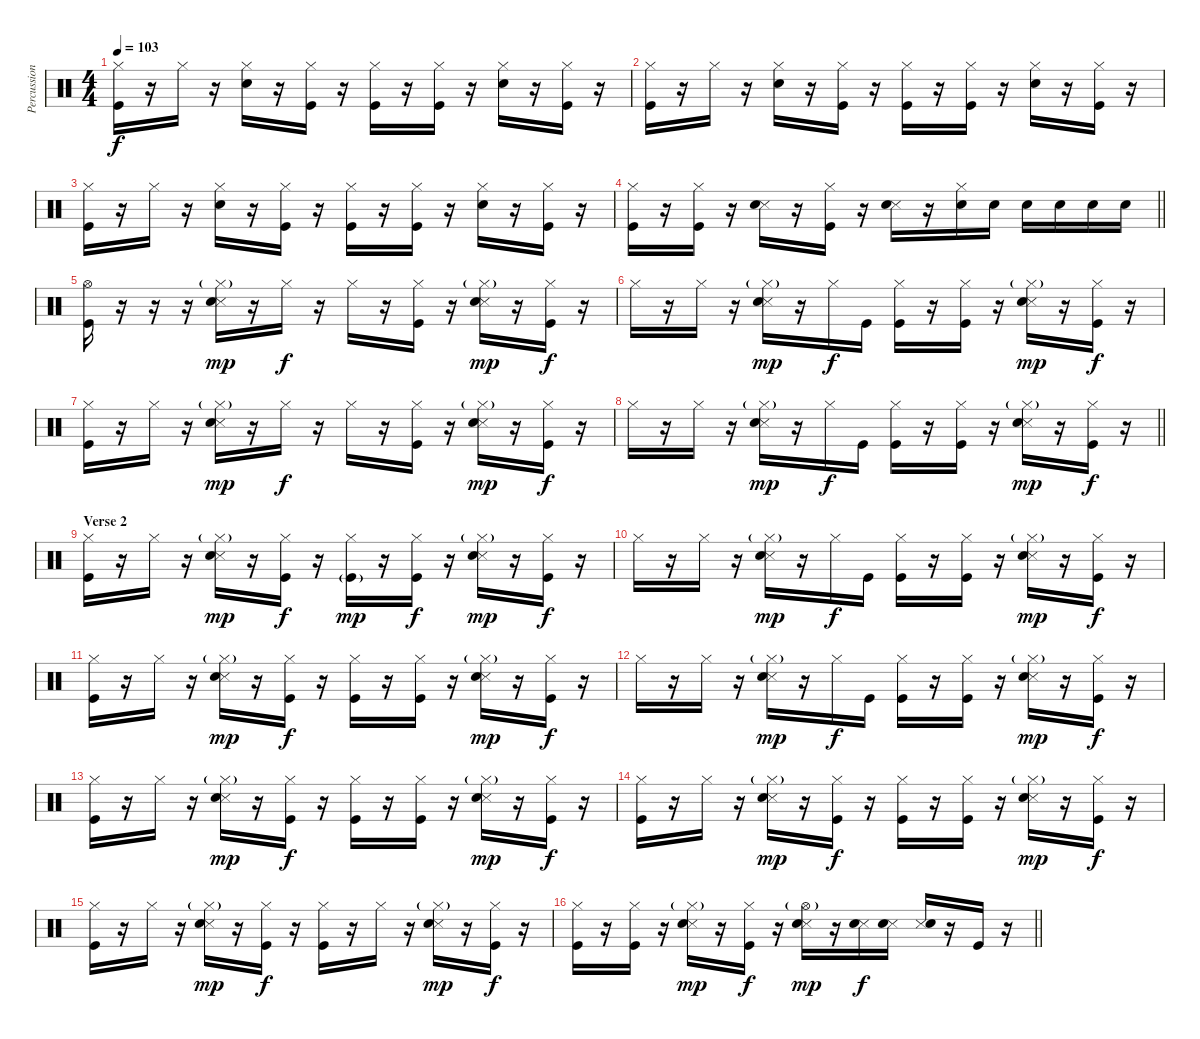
\track ("Percussion" "Percussion") {instrument percussion}
\staff {score}
\articulation defaults
\ts (4 4)
\tempo 103
\clef neutral
\ks c
("Hi-Hat (closed)" "Kick (hit)").16{dy f} r.16 "Hi-Hat (closed)".16 r.16 ("Hi-Hat (closed)" "Snare (hit) 2").16 r.16 ("Hi-Hat (closed)" "Kick (hit)").16 r.16 ("Hi-Hat (closed)" "Kick (hit)").16 r.16 ("Hi-Hat (closed)" "Kick (hit)").16 r.16 ("Hi-Hat (closed)" "Snare (hit) 2").16 r.16 ("Hi-Hat (closed)" "Kick (hit)").16 r.16 |
("Hi-Hat (closed)" "Kick (hit)").16 r.16 "Hi-Hat (closed)".16 r.16 ("Hi-Hat (closed)" "Snare (hit) 2").16 r.16 ("Hi-Hat (closed)" "Kick (hit)").16 r.16 ("Hi-Hat (closed)" "Kick (hit)").16 r.16 ("Hi-Hat (closed)" "Kick (hit)").16 r.16 ("Hi-Hat (closed)" "Snare (hit) 2").16 r.16 ("Hi-Hat (closed)" "Kick (hit)").16 r.16 |
("Hi-Hat (closed)" "Kick (hit)").16 r.16 "Hi-Hat (closed)".16 r.16 ("Hi-Hat (closed)" "Snare (hit) 2").16 r.16 ("Hi-Hat (closed)" "Kick (hit)").16 r.16 ("Hi-Hat (closed)" "Kick (hit)").16 r.16 ("Hi-Hat (closed)" "Kick (hit)").16 r.16 ("Hi-Hat (closed)" "Snare (hit) 2").16 r.16 ("Hi-Hat (closed)" "Kick (hit)").16 r.16 |
\barLineRight lightlight
("Hi-Hat (closed)" "Kick (hit)").16 r.16 ("Hi-Hat (closed)" "Kick (hit)").16 r.16 ("Snare (side stick) 3" "Snare (hit) 2").16 r.16 ("Hi-Hat (closed)" "Kick (hit)").16 r.16 ("Snare (side stick) 3" "Snare (hit) 2").16 r.16 ("Hi-Hat (closed)" "Snare (hit) 2").16 "Snare (hit) 2".16 "Snare (hit) 2".16 "Snare (hit) 2".16 "Snare (hit) 2".16 "Snare (hit) 2".16 |
("Hi-Hat (open)" "Kick (hit)").16 r.16 r.16 r.16 ("Hi-Hat (closed)"{g} "Snare (side stick) 3" "Snare (hit) 2").16{dy mp} r.16 "Hi-Hat (closed)".16{dy f} r.16 "Hi-Hat (closed)".16 r.16 ("Hi-Hat (closed)" "Kick (hit)").16 r.16 ("Hi-Hat (closed)"{g} "Snare (side stick) 3" "Snare (hit) 2").16{dy mp} r.16 ("Hi-Hat (closed)" "Kick (hit)").16{dy f} r.16 |
"Hi-Hat (closed)".16 r.16 "Hi-Hat (closed)".16 r.16 ("Hi-Hat (closed)"{g} "Snare (side stick) 3" "Snare (hit) 2").16{dy mp} r.16 "Hi-Hat (closed)".16{dy f} "Kick (hit)".16 ("Hi-Hat (closed)" "Kick (hit)").16 r.16 ("Hi-Hat (closed)" "Kick (hit)").16 r.16 ("Hi-Hat (closed)"{g} "Snare (side stick) 3" "Snare (hit) 2").16{dy mp} r.16 ("Hi-Hat (closed)" "Kick (hit)").16{dy f} r.16 |
("Hi-Hat (closed)" "Kick (hit)").16 r.16 "Hi-Hat (closed)".16 r.16 ("Hi-Hat (closed)"{g} "Snare (side stick) 3" "Snare (hit) 2").16{dy mp} r.16 "Hi-Hat (closed)".16{dy f} r.16 "Hi-Hat (closed)".16 r.16 ("Hi-Hat (closed)" "Kick (hit)").16 r.16 ("Hi-Hat (closed)"{g} "Snare (side stick) 3" "Snare (hit) 2").16{dy mp} r.16 ("Hi-Hat (closed)" "Kick (hit)").16{dy f} r.16 |
\barLineRight lightlight "Hi-Hat (closed)".16
r.16 "Hi-Hat (closed)".16 r.16 ("Hi-Hat (closed)"{g} "Snare (side stick) 3" "Snare (hit) 2").16{dy mp} r.16 "Hi-Hat (closed)".16{dy f} "Kick (hit)".16 ("Hi-Hat (closed)" "Kick (hit)").16 r.16 ("Hi-Hat (closed)" "Kick (hit)").16 r.16 ("Hi-Hat (closed)"{g} "Snare (side stick) 3" "Snare (hit) 2").16{dy mp} r.16 ("Hi-Hat (closed)" "Kick (hit)").16{dy f} r.16 |
\section ("" "Verse 2")
("Hi-Hat (closed)" "Kick (hit)").16 r.16 "Hi-Hat (closed)".16 r.16 ("Hi-Hat (closed)"{g} "Snare (side stick) 3" "Snare (hit) 2").16{dy mp} r.16 ("Hi-Hat (closed)" "Kick (hit)").16{dy f} r.16 ("Hi-Hat (closed)" "Kick (hit)"{g}).16{dy mp} r.16 ("Hi-Hat (closed)" "Kick (hit)").16{dy f} r.16 ("Hi-Hat (closed)"{g} "Snare (side stick) 3" "Snare (hit) 2").16{dy mp} r.16 ("Hi-Hat (closed)" "Kick (hit)").16{dy f} r.16 |
"Hi-Hat (closed)".16 r.16 "Hi-Hat (closed)".16 r.16 ("Hi-Hat (closed)"{g} "Snare (side stick) 3" "Snare (hit) 2").16{dy mp} r.16 "Hi-Hat (closed)".16{dy f} "Kick (hit)".16 ("Hi-Hat (closed)" "Kick (hit)").16 r.16 ("Hi-Hat (closed)" "Kick (hit)").16 r.16 ("Hi-Hat (closed)"{g} "Snare (side stick) 3" "Snare (hit) 2").16{dy mp} r.16 ("Hi-Hat (closed)" "Kick (hit)").16{dy f} r.16 |
("Hi-Hat (closed)" "Kick (hit)").16 r.16 "Hi-Hat (closed)".16 r.16 ("Hi-Hat (closed)"{g} "Snare (side stick) 3" "Snare (hit) 2").16{dy mp} r.16 ("Hi-Hat (closed)" "Kick (hit)").16{dy f} r.16 ("Hi-Hat (closed)" "Kick (hit)").16 r.16 ("Hi-Hat (closed)" "Kick (hit)").16 r.16 ("Hi-Hat (closed)"{g} "Snare (side stick) 3" "Snare (hit) 2").16{dy mp} r.16 ("Hi-Hat (closed)" "Kick (hit)").16{dy f} r.16 |
"Hi-Hat (closed)".16 r.16 "Hi-Hat (closed)".16 r.16 ("Hi-Hat (closed)"{g} "Snare (side stick) 3" "Snare (hit) 2").16{dy mp} r.16 "Hi-Hat (closed)".16{dy f} "Kick (hit)".16 ("Hi-Hat (closed)" "Kick (hit)").16 r.16 ("Hi-Hat (closed)" "Kick (hit)").16 r.16 ("Hi-Hat (closed)"{g} "Snare (side stick) 3" "Snare (hit) 2").16{dy mp} r.16 ("Hi-Hat (closed)" "Kick (hit)").16{dy f} r.16 |
("Hi-Hat (closed)" "Kick (hit)").16 r.16 "Hi-Hat (closed)".16 r.16 ("Hi-Hat (closed)"{g} "Snare (side stick) 3" "Snare (hit) 2").16{dy mp} r.16 ("Hi-Hat (closed)" "Kick (hit)").16{dy f} r.16 ("Hi-Hat (closed)" "Kick (hit)").16 r.16 ("Hi-Hat (closed)" "Kick (hit)").16 r.16 ("Hi-Hat (closed)"{g} "Snare (side stick) 3" "Snare (hit) 2").16{dy mp} r.16 ("Hi-Hat (closed)" "Kick (hit)").16{dy f} r.16 |
("Hi-Hat (closed)" "Kick (hit)").16 r.16 "Hi-Hat (closed)".16 r.16 ("Hi-Hat (closed)"{g} "Snare (side stick) 3" "Snare (hit) 2").16{dy mp} r.16 ("Hi-Hat (closed)" "Kick (hit)").16{dy f} r.16 ("Hi-Hat (closed)" "Kick (hit)").16 r.16 ("Hi-Hat (closed)" "Kick (hit)").16 r.16 ("Hi-Hat (closed)"{g} "Snare (side stick) 3" "Snare (hit) 2").16{dy mp} r.16 ("Hi-Hat (closed)" "Kick (hit)").16{dy f} r.16 |
("Hi-Hat (closed)" "Kick (hit)").16 r.16 "Hi-Hat (closed)".16 r.16 ("Hi-Hat (closed)"{g} "Snare (side stick) 3" "Snare (hit) 2").16{dy mp} r.16 ("Hi-Hat (closed)" "Kick (hit)").16{dy f} r.16 ("Hi-Hat (closed)" "Kick (hit)").16 r.16 "Hi-Hat (closed)".16 r.16 ("Hi-Hat (closed)"{g} "Snare (side stick) 3" "Snare (hit) 2").16{dy mp} r.16 ("Hi-Hat (closed)" "Kick (hit)").16{dy f} r.16 |
\barLineRight lightlight
("Hi-Hat (closed)" "Kick (hit)").16 r.16 ("Hi-Hat (closed)" "Kick (hit)").16 r.16 ("Hi-Hat (closed)"{g} "Snare (side stick) 3" "Snare (hit) 2").16{dy mp} r.16 ("Hi-Hat (closed)" "Kick (hit)").16{dy f} r.16 ("Hi-Hat (open)"{g} "Snare (side stick) 3" "Snare (hit) 2").16{dy mp} r.16 ("Snare (side stick) 3" "Snare (hit) 2").16{dy f} ("Snare (side stick) 3" "Snare (hit) 2").16 ("Snare (side stick) 3" "Snare (hit) 2").16 r.16 "Kick (hit)".16 r.16
